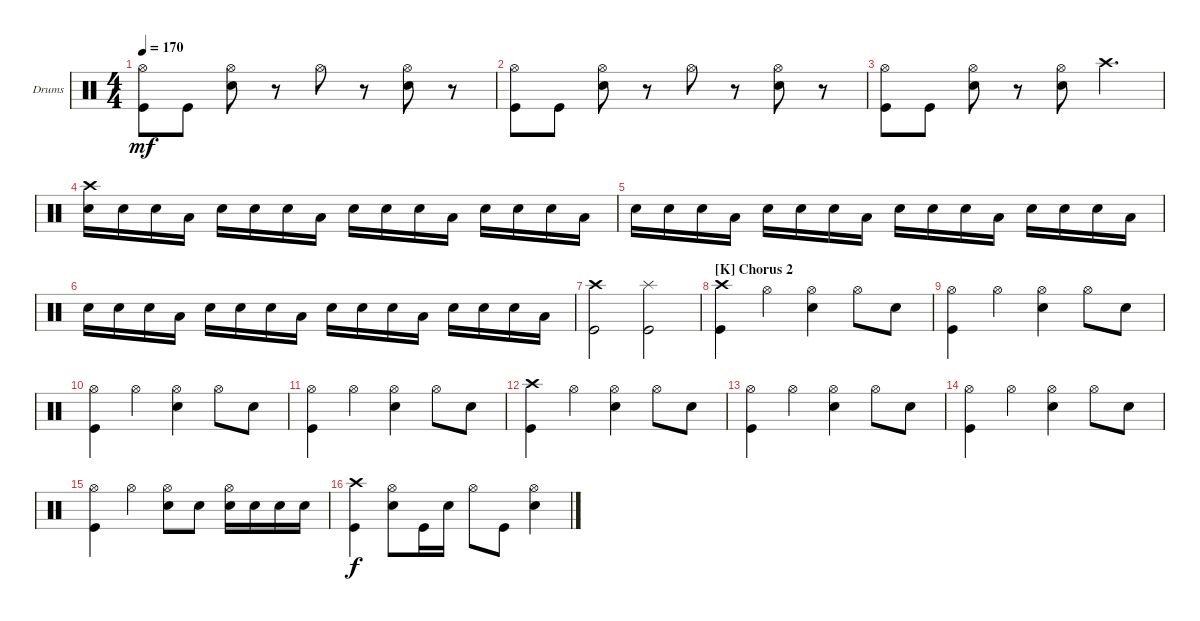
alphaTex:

\defaultSystemsLayout 4
\bracketExtendMode groupsimilarinstruments
\firstSystemTrackNameOrientation horizontal
\otherSystemsTrackNameOrientation horizontal
\track ("Drumkit" "Drums") {instrument percussion}
\staff {score}
\articulation defaults
\ts (4 4)
\tempo 170
\clef neutral
\ks c
("Kick (hit)" "Hi-Hat (open)").8{dy mf} "Kick (hit)".8 ("Hi-Hat (open)" "Snare (hit) 2").8 r.8 "Hi-Hat (open)".8 r.8 ("Hi-Hat (open)" "Snare (hit) 2").8 r.8 |
("Kick (hit)" "Hi-Hat (open)").8 "Kick (hit)".8 ("Hi-Hat (open)" "Snare (hit) 2").8 r.8 "Hi-Hat (open)".8 r.8 ("Hi-Hat (open)" "Snare (hit) 2").8 r.8 |
("Kick (hit)" "Hi-Hat (open)").8 "Kick (hit)".8 ("Hi-Hat (open)" "Snare (hit) 2").8 r.8 ("Hi-Hat (open)" "Snare (hit) 2").8 "Crash high (hit)".4{d} |
("Crash high (hit)" "Snare (hit) 2").16 "Snare (hit) 2".16 "Snare (hit) 2".16 "Low Tom (hit)".16 "Snare (hit) 2".16 "Snare (hit) 2".16 "Snare (hit) 2".16 "Low Tom (hit)".16 "Snare (hit) 2".16 "Snare (hit) 2".16 "Snare (hit) 2".16 "Low Tom (hit)".16 "Snare (hit) 2".16 "Snare (hit) 2".16 "Snare (hit) 2".16 "Low Tom (hit)".16 |
"Snare (hit) 2".16 "Snare (hit) 2".16 "Snare (hit) 2".16 "Low Tom (hit)".16 "Snare (hit) 2".16 "Snare (hit) 2".16 "Snare (hit) 2".16 "Low Tom (hit)".16 "Snare (hit) 2".16 "Snare (hit) 2".16 "Snare (hit) 2".16 "Low Tom (hit)".16 "Snare (hit) 2".16 "Snare (hit) 2".16 "Snare (hit) 2".16 "Low Tom (hit)".16 |
"Snare (hit) 2".16 "Snare (hit) 2".16 "Snare (hit) 2".16 "Low Tom (hit)".16 "Snare (hit) 2".16 "Snare (hit) 2".16 "Snare (hit) 2".16 "Low Tom (hit)".16 "Snare (hit) 2".16 "Snare (hit) 2".16 "Snare (hit) 2".16 "Low Tom (hit)".16 "Snare (hit) 2".16 "Snare (hit) 2".16 "Snare (hit) 2".16 "Low Tom (hit)".16 |
("Crash high (hit)" "Kick (hit)").2 ("Splash (hit)" "Kick (hit)").2 |
\section ("K" "Chorus 2")
("Crash high (hit)" "Kick (hit)").4 "Hi-Hat (open)".4 ("Snare (hit) 2" "Hi-Hat (open)").4 "Hi-Hat (open)".8 "Snare (hit) 2".8 |
("Kick (hit)" "Hi-Hat (open)").4 "Hi-Hat (open)".4 ("Snare (hit) 2" "Hi-Hat (open)").4 "Hi-Hat (open)".8 "Snare (hit) 2".8 |
("Kick (hit)" "Hi-Hat (open)").4 "Hi-Hat (open)".4 ("Snare (hit) 2" "Hi-Hat (open)").4 "Hi-Hat (open)".8 "Snare (hit) 2".8 |
("Kick (hit)" "Hi-Hat (open)").4 "Hi-Hat (open)".4 ("Snare (hit) 2" "Hi-Hat (open)").4 "Hi-Hat (open)".8 "Snare (hit) 2".8 |
("Crash high (hit)" "Kick (hit)").4 "Hi-Hat (open)".4 ("Snare (hit) 2" "Hi-Hat (open)").4 "Hi-Hat (open)".8 "Snare (hit) 2".8 |
("Kick (hit)" "Hi-Hat (open)").4 "Hi-Hat (open)".4 ("Snare (hit) 2" "Hi-Hat (open)").4 "Hi-Hat (open)".8 "Snare (hit) 2".8 |
("Kick (hit)" "Hi-Hat (open)").4 "Hi-Hat (open)".4 ("Snare (hit) 2" "Hi-Hat (open)").4 "Hi-Hat (open)".8 "Snare (hit) 2".8 |
("Kick (hit)" "Hi-Hat (open)").4 "Hi-Hat (open)".4 ("Snare (hit) 2" "Hi-Hat (open)").8 "Snare (hit) 2".8 ("Hi-Hat (open)" "Snare (hit) 2").16 "Snare (hit) 2".16 "Snare (hit) 2".16 "Snare (hit) 2".16 |
("Crash high (hit)" "Kick (hit)").4{dy f} ("Hi-Hat (open)" "Snare (hit) 2").8 "Kick (hit)".16 "Snare (hit) 2".16 "Hi-Hat (open)".8 "Kick (hit)".8 ("Hi-Hat (open)" "Snare (hit) 2").4
